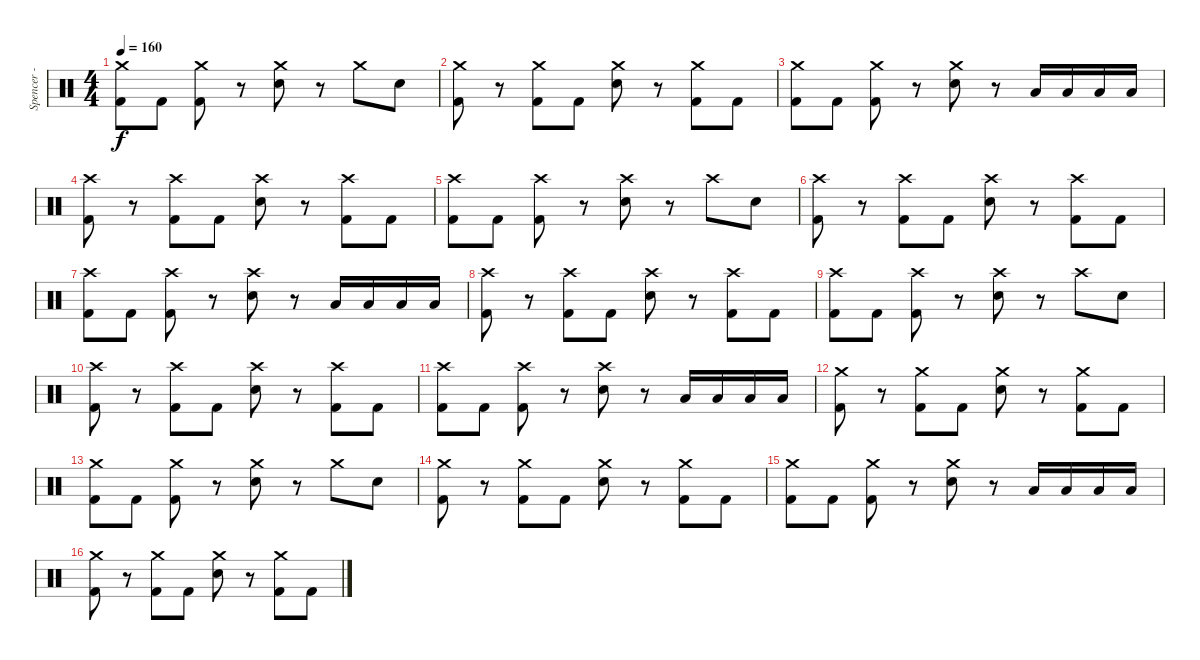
\track ("Spencer - Drums" "Spencer - ") {instrument percussion}
\staff {score}
\articulation defaults
\ts (4 4)
\tempo 160
\clef neutral
\ks c
("Crash medium (hit)" "Kick (hit) 2").8{dy f} "Kick (hit) 2".8 ("Crash medium (hit)" "Kick (hit) 2").8 r.8 ("Crash medium (hit)" "Electric Snare (hit)").8 r.8 "Crash medium (hit)".8 "Electric Snare (hit)".8 |
("Crash medium (hit)" "Kick (hit) 2").8 r.8 ("Crash medium (hit)" "Kick (hit) 2").8 "Kick (hit) 2".8 ("Crash medium (hit)" "Electric Snare (hit)").8 r.8 ("Crash medium (hit)" "Kick (hit) 2").8 "Kick (hit) 2".8 |
("Crash medium (hit)" "Kick (hit) 2").8 "Kick (hit) 2".8 ("Crash medium (hit)" "Kick (hit) 2").8 r.8 ("Crash medium (hit)" "Electric Snare (hit)").8 r.8 "Low Tom (hit)".16 "Low Tom (hit)".16 "Low Tom (hit)".16 "Low Tom (hit)".16 |
("Crash high (hit)" "Kick (hit) 2").8 r.8 ("Crash high (hit)" "Kick (hit) 2").8 "Kick (hit) 2".8 ("Crash high (hit)" "Electric Snare (hit)").8 r.8 ("Crash high (hit)" "Kick (hit) 2").8 "Kick (hit) 2".8 |
("Crash high (hit)" "Kick (hit) 2").8 "Kick (hit) 2".8 ("Crash high (hit)" "Kick (hit) 2").8 r.8 ("Crash high (hit)" "Electric Snare (hit)").8 r.8 "Crash high (hit)".8 "Electric Snare (hit)".8 |
("Crash high (hit)" "Kick (hit) 2").8 r.8 ("Crash high (hit)" "Kick (hit) 2").8 "Kick (hit) 2".8 ("Crash high (hit)" "Electric Snare (hit)").8 r.8 ("Crash high (hit)" "Kick (hit) 2").8 "Kick (hit) 2".8 |
("Crash high (hit)" "Kick (hit) 2").8 "Kick (hit) 2".8 ("Crash high (hit)" "Kick (hit) 2").8 r.8 ("Crash high (hit)" "Electric Snare (hit)").8 r.8 "Low Tom (hit)".16 "Low Tom (hit)".16 "Low Tom (hit)".16 "Low Tom (hit)".16 |
("Crash high (hit)" "Kick (hit) 2").8 r.8 ("Crash high (hit)" "Kick (hit) 2").8 "Kick (hit) 2".8 ("Crash high (hit)" "Electric Snare (hit)").8 r.8 ("Crash high (hit)" "Kick (hit) 2").8 "Kick (hit) 2".8 |
("Crash high (hit)" "Kick (hit) 2").8 "Kick (hit) 2".8 ("Crash high (hit)" "Kick (hit) 2").8 r.8 ("Crash high (hit)" "Electric Snare (hit)").8 r.8 "Crash high (hit)".8 "Electric Snare (hit)".8 |
("Crash high (hit)" "Kick (hit) 2").8 r.8 ("Crash high (hit)" "Kick (hit) 2").8 "Kick (hit) 2".8 ("Crash high (hit)" "Electric Snare (hit)").8 r.8 ("Crash high (hit)" "Kick (hit) 2").8 "Kick (hit) 2".8 |
("Crash high (hit)" "Kick (hit) 2").8 "Kick (hit) 2".8 ("Crash high (hit)" "Kick (hit) 2").8 r.8 ("Crash high (hit)" "Electric Snare (hit)").8 r.8 "Low Tom (hit)".16 "Low Tom (hit)".16 "Low Tom (hit)".16 "Low Tom (hit)".16 |
("Crash medium (hit)" "Kick (hit) 2").8 r.8 ("Crash medium (hit)" "Kick (hit) 2").8 "Kick (hit) 2".8 ("Crash medium (hit)" "Electric Snare (hit)").8 r.8 ("Crash medium (hit)" "Kick (hit) 2").8 "Kick (hit) 2".8 |
("Crash medium (hit)" "Kick (hit) 2").8 "Kick (hit) 2".8 ("Crash medium (hit)" "Kick (hit) 2").8 r.8 ("Crash medium (hit)" "Electric Snare (hit)").8 r.8 "Crash medium (hit)".8 "Electric Snare (hit)".8 |
("Crash medium (hit)" "Kick (hit) 2").8 r.8 ("Crash medium (hit)" "Kick (hit) 2").8 "Kick (hit) 2".8 ("Crash medium (hit)" "Electric Snare (hit)").8 r.8 ("Crash medium (hit)" "Kick (hit) 2").8 "Kick (hit) 2".8 |
("Crash medium (hit)" "Kick (hit) 2").8 "Kick (hit) 2".8 ("Crash medium (hit)" "Kick (hit) 2").8 r.8 ("Crash medium (hit)" "Electric Snare (hit)").8 r.8 "Low Tom (hit)".16 "Low Tom (hit)".16 "Low Tom (hit)".16 "Low Tom (hit)".16 |
("Crash medium (hit)" "Kick (hit) 2").8 r.8 ("Crash medium (hit)" "Kick (hit) 2").8 "Kick (hit) 2".8 ("Crash medium (hit)" "Electric Snare (hit)").8 r.8 ("Crash medium (hit)" "Kick (hit) 2").8 "Kick (hit) 2".8
